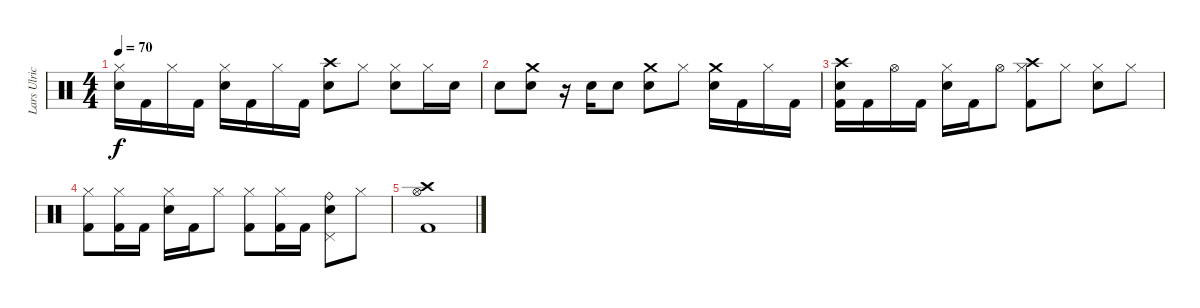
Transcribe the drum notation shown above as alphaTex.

\track ("Lars Ulrich (Drums)" "Lars Ulric") {instrument percussion}
\staff {score}
\articulation defaults
\ts (4 4)
\tempo 70
\clef neutral
\ks c
("Electric Snare (hit)" "Hi-Hat (closed)").16{dy f} "Kick (hit) 2".16 "Hi-Hat (closed)".16 "Kick (hit) 2".16 ("Electric Snare (hit)" "Hi-Hat (closed)").16 "Kick (hit) 2".16 "Hi-Hat (closed)".16 "Kick (hit) 2".16 ("Electric Snare (hit)" "Crash high (hit)").8 "Hi-Hat (closed)".8 ("Electric Snare (hit)" "Hi-Hat (closed)").8 "Hi-Hat (closed)".16 "Electric Snare (hit)".16 |
"Electric Snare (hit)".8 ("Electric Snare (hit)" "Crash medium (hit)").8 r.16 "Electric Snare (hit)".16 "Electric Snare (hit)".8 ("Electric Snare (hit)" "Crash medium (hit)").8 "Hi-Hat (closed)".8 ("Electric Snare (hit)" "Crash medium (hit)").16 "Kick (hit) 2".16 "Hi-Hat (closed)".16 "Kick (hit) 2".16 |
("Electric Snare (hit)" "Crash high (hit)" "Kick (hit) 2").16 "Kick (hit) 2".16 "Hi-Hat (open)".16 "Kick (hit) 2".16 ("Electric Snare (hit)" "Hi-Hat (closed)").16 "Kick (hit) 2".16 "Hi-Hat (open)".8 ("Crash high (hit)" "Hi-Hat (closed)" "Kick (hit) 2").8 "Hi-Hat (closed)".8 ("Electric Snare (hit)" "Hi-Hat (closed)").8 "Hi-Hat (closed)".8 |
("Hi-Hat (closed)" "Kick (hit) 2").8 ("Hi-Hat (closed)" "Kick (hit) 2").16 "Kick (hit) 2".16 ("Electric Snare (hit)" "Hi-Hat (closed)").16 "Kick (hit) 2".16 "Hi-Hat (closed)".8 ("Hi-Hat (closed)" "Kick (hit) 2").8 ("Hi-Hat (closed)" "Kick (hit) 2").16 "Kick (hit) 2".16 ("Electric Snare (hit)" "Pedal Hi-Hat (hit)" "Ride (bell)").8 "Hi-Hat (closed)".8 |
("Crash high (hit)" "Hi-Hat (open)" "Kick (hit) 2").1
